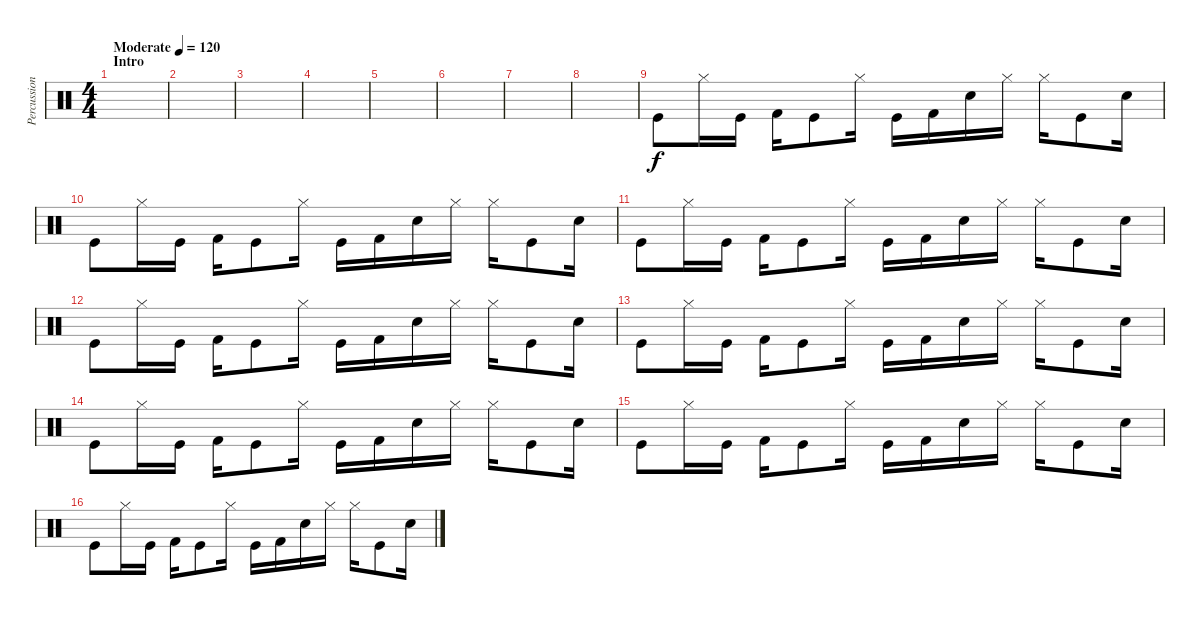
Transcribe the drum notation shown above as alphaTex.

\track ("Percussion" "Percussion") {instrument percussion}
\staff {score}
\articulation defaults
\ts (4 4)
\section ("" "Intro")
\tempo (120 "Moderate")
\clef neutral
\ks c
|
|
|
|
|
|
|
|
"Kick (hit)".8 "Hi-Hat (closed)".16 "Kick (hit)".16 "Kick (hit) 2".16 "Kick (hit)".8 "Hi-Hat (closed)".16 "Kick (hit)".16 "Kick (hit) 2".16 "Snare (hit) 2".16 "Hi-Hat (closed)".16 "Hi-Hat (closed)".16 "Kick (hit)".8 "Snare (hit) 2".16 |
"Kick (hit)".8 "Hi-Hat (closed)".16 "Kick (hit)".16 "Kick (hit) 2".16 "Kick (hit)".8 "Hi-Hat (closed)".16 "Kick (hit)".16 "Kick (hit) 2".16 "Snare (hit) 2".16 "Hi-Hat (closed)".16 "Hi-Hat (closed)".16 "Kick (hit)".8 "Snare (hit) 2".16 |
"Kick (hit)".8 "Hi-Hat (closed)".16 "Kick (hit)".16 "Kick (hit) 2".16 "Kick (hit)".8 "Hi-Hat (closed)".16 "Kick (hit)".16 "Kick (hit) 2".16 "Snare (hit) 2".16 "Hi-Hat (closed)".16 "Hi-Hat (closed)".16 "Kick (hit)".8 "Snare (hit) 2".16 |
"Kick (hit)".8 "Hi-Hat (closed)".16 "Kick (hit)".16 "Kick (hit) 2".16 "Kick (hit)".8 "Hi-Hat (closed)".16 "Kick (hit)".16 "Kick (hit) 2".16 "Snare (hit) 2".16 "Hi-Hat (closed)".16 "Hi-Hat (closed)".16 "Kick (hit)".8 "Snare (hit) 2".16 |
"Kick (hit)".8 "Hi-Hat (closed)".16 "Kick (hit)".16 "Kick (hit) 2".16 "Kick (hit)".8 "Hi-Hat (closed)".16 "Kick (hit)".16 "Kick (hit) 2".16 "Snare (hit) 2".16 "Hi-Hat (closed)".16 "Hi-Hat (closed)".16 "Kick (hit)".8 "Snare (hit) 2".16 |
"Kick (hit)".8 "Hi-Hat (closed)".16 "Kick (hit)".16 "Kick (hit) 2".16 "Kick (hit)".8 "Hi-Hat (closed)".16 "Kick (hit)".16 "Kick (hit) 2".16 "Snare (hit) 2".16 "Hi-Hat (closed)".16 "Hi-Hat (closed)".16 "Kick (hit)".8 "Snare (hit) 2".16 |
"Kick (hit)".8 "Hi-Hat (closed)".16 "Kick (hit)".16 "Kick (hit) 2".16 "Kick (hit)".8 "Hi-Hat (closed)".16 "Kick (hit)".16 "Kick (hit) 2".16 "Snare (hit) 2".16 "Hi-Hat (closed)".16 "Hi-Hat (closed)".16 "Kick (hit)".8 "Snare (hit) 2".16 |
"Kick (hit)".8 "Hi-Hat (closed)".16 "Kick (hit)".16 "Kick (hit) 2".16 "Kick (hit)".8 "Hi-Hat (closed)".16 "Kick (hit)".16 "Kick (hit) 2".16 "Snare (hit) 2".16 "Hi-Hat (closed)".16 "Hi-Hat (closed)".16 "Kick (hit)".8 "Snare (hit) 2".16
